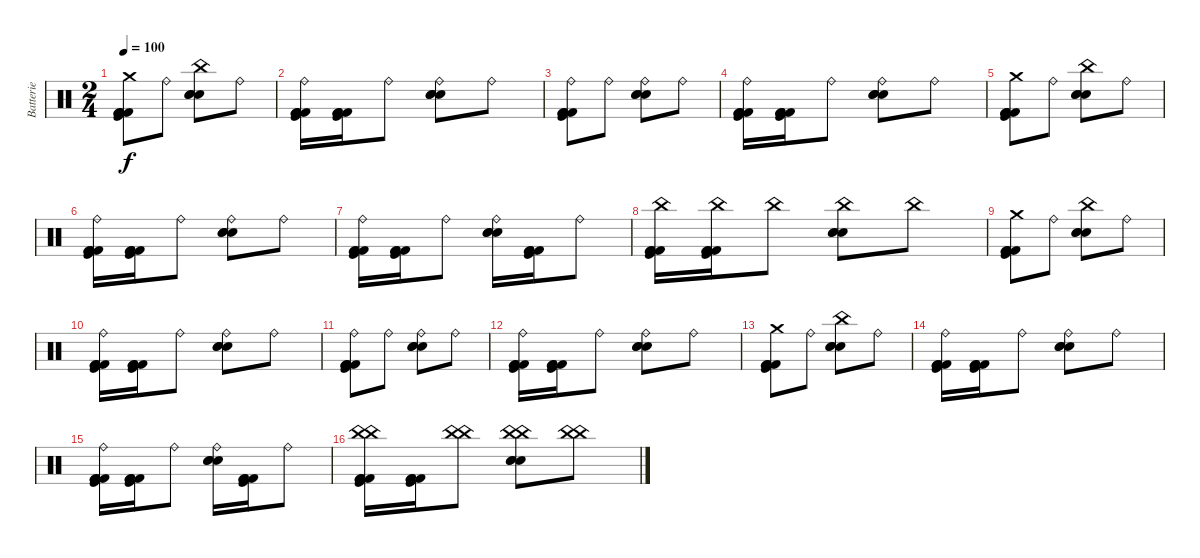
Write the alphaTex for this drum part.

\track ("Batterie" "Batterie") {instrument percussion}
\staff {score}
\articulation defaults
\ts (2 4)
\tempo 100
\clef neutral
\ks c
("Crash medium (hit)" "Kick (hit) 2" "Kick (hit) 2" "Kick (hit) 2" "Kick (hit)").8{dy f} "Ride (bell)".8 ("China (hit)" "Snare (hit) 2" "Electric Snare (hit)" "Electric Snare (hit)").8 "Ride (bell)".8 |
("Ride (bell)" "Kick (hit) 2" "Kick (hit) 2" "Kick (hit) 2" "Kick (hit)").16 ("Kick (hit) 2" "Kick (hit) 2" "Kick (hit) 2" "Kick (hit)").16 "Ride (bell)".8 ("Ride (bell)" "Snare (hit) 2" "Electric Snare (hit)" "Electric Snare (hit)").8 "Ride (bell)".8 |
("Ride (bell)" "Kick (hit) 2" "Kick (hit) 2" "Kick (hit) 2" "Kick (hit)").8 "Ride (bell)".8 ("Ride (bell)" "Snare (hit) 2" "Electric Snare (hit)" "Electric Snare (hit)").8 "Ride (bell)".8 |
("Ride (bell)" "Kick (hit) 2" "Kick (hit) 2" "Kick (hit) 2" "Kick (hit)").16 ("Kick (hit) 2" "Kick (hit) 2" "Kick (hit) 2" "Kick (hit)").16 "Ride (bell)".8 ("Ride (bell)" "Snare (hit) 2" "Electric Snare (hit)" "Electric Snare (hit)").8 "Ride (bell)".8 |
("Crash medium (hit)" "Kick (hit) 2" "Kick (hit) 2" "Kick (hit) 2" "Kick (hit)").8 "Ride (bell)".8 ("China (hit)" "Snare (hit) 2" "Electric Snare (hit)" "Electric Snare (hit)").8 "Ride (bell)".8 |
("Ride (bell)" "Kick (hit) 2" "Kick (hit) 2" "Kick (hit) 2" "Kick (hit)").16 ("Kick (hit) 2" "Kick (hit) 2" "Kick (hit) 2" "Kick (hit)").16 "Ride (bell)".8 ("Ride (bell)" "Snare (hit) 2" "Electric Snare (hit)" "Electric Snare (hit)").8 "Ride (bell)".8 |
("Ride (bell)" "Kick (hit) 2" "Kick (hit) 2" "Kick (hit) 2" "Kick (hit)").16 ("Kick (hit) 2" "Kick (hit) 2" "Kick (hit) 2" "Kick (hit)").16 "Ride (bell)".8 ("Ride (bell)" "Snare (hit) 2" "Electric Snare (hit)" "Electric Snare (hit)").16 ("Kick (hit) 2" "Kick (hit) 2" "Kick (hit) 2" "Kick (hit)").16 "Ride (bell)".8 |
("China (hit)" "Kick (hit) 2" "Kick (hit) 2" "Kick (hit) 2" "Kick (hit)").16 ("China (hit)" "Kick (hit) 2" "Kick (hit) 2" "Kick (hit) 2" "Kick (hit)").16 "China (hit)".8 ("China (hit)" "Snare (hit) 2" "Electric Snare (hit)" "Electric Snare (hit)").8 "China (hit)".8 |
("Crash medium (hit)" "Kick (hit) 2" "Kick (hit) 2" "Kick (hit) 2" "Kick (hit)").8 "Ride (bell)".8 ("China (hit)" "Snare (hit) 2" "Electric Snare (hit)" "Electric Snare (hit)").8 "Ride (bell)".8 |
("Ride (bell)" "Kick (hit) 2" "Kick (hit) 2" "Kick (hit) 2" "Kick (hit)").16 ("Kick (hit) 2" "Kick (hit) 2" "Kick (hit) 2" "Kick (hit)").16 "Ride (bell)".8 ("Ride (bell)" "Snare (hit) 2" "Electric Snare (hit)" "Electric Snare (hit)").8 "Ride (bell)".8 |
("Ride (bell)" "Kick (hit) 2" "Kick (hit) 2" "Kick (hit) 2" "Kick (hit)").8 "Ride (bell)".8 ("Ride (bell)" "Snare (hit) 2" "Electric Snare (hit)" "Electric Snare (hit)").8 "Ride (bell)".8 |
("Ride (bell)" "Kick (hit) 2" "Kick (hit) 2" "Kick (hit) 2" "Kick (hit)").16 ("Kick (hit) 2" "Kick (hit) 2" "Kick (hit) 2" "Kick (hit)").16 "Ride (bell)".8 ("Ride (bell)" "Snare (hit) 2" "Electric Snare (hit)" "Electric Snare (hit)").8 "Ride (bell)".8 |
("Crash medium (hit)" "Kick (hit) 2" "Kick (hit) 2" "Kick (hit) 2" "Kick (hit)").8 "Ride (bell)".8 ("China (hit)" "Snare (hit) 2" "Electric Snare (hit)" "Electric Snare (hit)").8 "Ride (bell)".8 |
("Ride (bell)" "Kick (hit) 2" "Kick (hit) 2" "Kick (hit) 2" "Kick (hit)").16 ("Kick (hit) 2" "Kick (hit) 2" "Kick (hit) 2" "Kick (hit)").16 "Ride (bell)".8 ("Ride (bell)" "Snare (hit) 2" "Electric Snare (hit)" "Electric Snare (hit)").8 "Ride (bell)".8 |
("Ride (bell)" "Kick (hit) 2" "Kick (hit) 2" "Kick (hit) 2" "Kick (hit)").16 ("Kick (hit) 2" "Kick (hit) 2" "Kick (hit) 2" "Kick (hit)").16 "Ride (bell)".8 ("Ride (bell)" "Snare (hit) 2" "Electric Snare (hit)" "Electric Snare (hit)").16 ("Kick (hit) 2" "Kick (hit) 2" "Kick (hit) 2" "Kick (hit)").16 "Ride (bell)".8 |
("China (hit)" "China (hit)" "Kick (hit) 2" "Kick (hit) 2" "Kick (hit) 2" "Kick (hit)").16 ("Kick (hit) 2" "Kick (hit) 2" "Kick (hit) 2" "Kick (hit)").16 ("China (hit)" "China (hit)").8 ("China (hit)" "China (hit)" "Snare (hit) 2" "Electric Snare (hit)" "Electric Snare (hit)").8 ("China (hit)" "China (hit)").8
